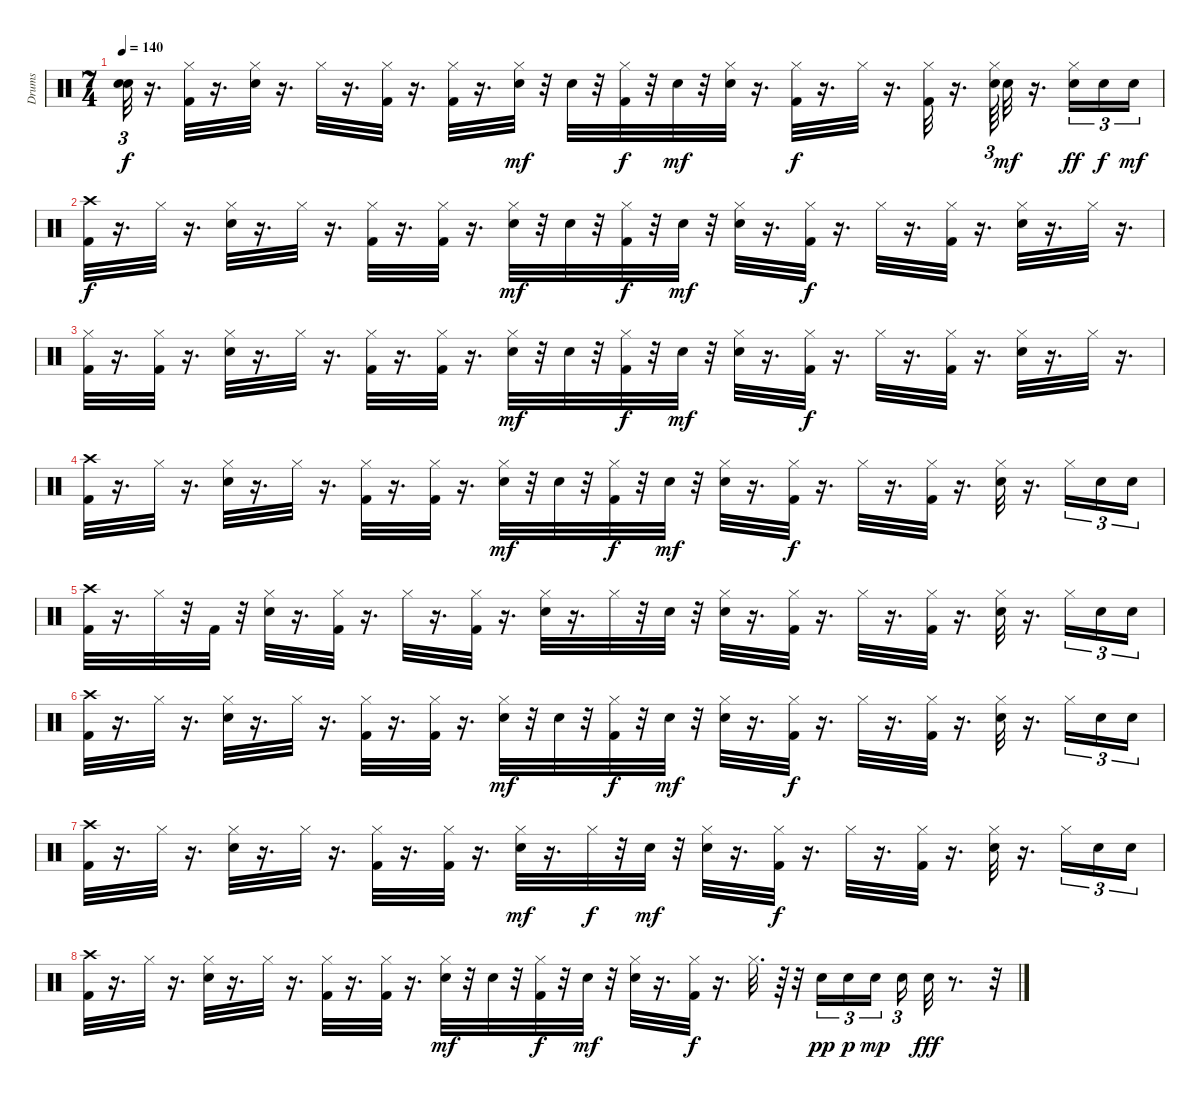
\track ("Drums" "Drums") {instrument percussion}
\staff {score}
\articulation defaults
\ts (7 4)
\tempo 140
\clef neutral
\ks c
("Snare (hit)"{t} "Snare (hit)"{t}).32{tu (3 2) dy f} r.16{d} ("Kick (hit) 2" "Hi-Hat (closed)").32 r.16{d} ("Snare (hit) 2" "Hi-Hat (closed)").32 r.16{d} "Hi-Hat (closed)".32 r.16{d} ("Hi-Hat (closed)" "Kick (hit) 2").32 r.16{d} ("Hi-Hat (closed)" "Kick (hit) 2").32 r.16{d} ("Snare (hit) 2" "Hi-Hat (closed)").32{dy mf} r.32 "Snare (hit) 2".32 r.32 ("Kick (hit) 2" "Hi-Hat (closed)").32{dy f} r.32 "Snare (hit) 2".32{dy mf} r.32 ("Hi-Hat (closed)" "Snare (hit) 2").32 r.16{d} ("Kick (hit) 2" "Hi-Hat (closed)").32{dy f} r.16{d} "Hi-Hat (closed)".32 r.16{d} ("Kick (hit) 2" "Hi-Hat (closed)").32 r.16{d} ("Snare (hit) 2" "Hi-Hat (closed)").64{tu (3 2)} "Snare (hit) 2".32{dy mf} r.16{d} ("Snare (hit) 2" "Hi-Hat (closed)").16{tu (3 2) dy ff} "Snare (hit) 2".16{tu (3 2) dy f} "Snare (hit) 2".16{tu (3 2) dy mf} |
("Kick (hit) 2" "Crash high (hit)").32{dy f} r.16{d} "Hi-Hat (closed)".32 r.16{d} ("Hi-Hat (closed)" "Snare (hit) 2").32 r.16{d} "Hi-Hat (closed)".32 r.16{d} ("Kick (hit) 2" "Hi-Hat (closed)").32 r.16{d} ("Kick (hit) 2" "Hi-Hat (closed)").32 r.16{d} ("Snare (hit) 2" "Hi-Hat (closed)").32{dy mf} r.32 "Snare (hit) 2".32 r.32 ("Kick (hit) 2" "Hi-Hat (closed)").32{dy f} r.32 "Snare (hit) 2".32{dy mf} r.32 ("Snare (hit) 2" "Hi-Hat (closed)").32 r.16{d} ("Hi-Hat (closed)" "Kick (hit) 2").32{dy f} r.16{d} "Hi-Hat (closed)".32 r.16{d} ("Kick (hit) 2" "Hi-Hat (closed)").32 r.16{d} ("Snare (hit) 2" "Hi-Hat (closed)").32 r.16{d} "Hi-Hat (closed)".32 r.16{d} |
("Kick (hit) 2" "Hi-Hat (closed)").32 r.16{d} ("Kick (hit) 2" "Hi-Hat (closed)").32 r.16{d} ("Snare (hit) 2" "Hi-Hat (closed)").32 r.16{d} "Hi-Hat (closed)".32 r.16{d} ("Hi-Hat (closed)" "Kick (hit) 2").32 r.16{d} ("Hi-Hat (closed)" "Kick (hit) 2").32 r.16{d} ("Snare (hit) 2" "Hi-Hat (closed)").32{dy mf} r.32 "Snare (hit) 2".32 r.32 ("Kick (hit) 2" "Hi-Hat (closed)").32{dy f} r.32 "Snare (hit) 2".32{dy mf} r.32 ("Hi-Hat (closed)" "Snare (hit) 2").32 r.16{d} ("Kick (hit) 2" "Hi-Hat (closed)").32{dy f} r.16{d} "Hi-Hat (closed)".32 r.16{d} ("Kick (hit) 2" "Hi-Hat (closed)").32 r.16{d} ("Snare (hit) 2" "Hi-Hat (closed)").32 r.16{d} "Hi-Hat (closed)".32 r.16{d} |
("Kick (hit) 2" "Crash high (hit)").32 r.16{d} "Hi-Hat (closed)".32 r.16{d} ("Hi-Hat (closed)" "Snare (hit) 2").32 r.16{d} "Hi-Hat (closed)".32 r.16{d} ("Kick (hit) 2" "Hi-Hat (closed)").32 r.16{d} ("Kick (hit) 2" "Hi-Hat (closed)").32 r.16{d} ("Snare (hit) 2" "Hi-Hat (closed)").32{dy mf} r.32 "Snare (hit) 2".32 r.32 ("Kick (hit) 2" "Hi-Hat (closed)").32{dy f} r.32 "Snare (hit) 2".32{dy mf} r.32 ("Snare (hit) 2" "Hi-Hat (closed)").32 r.16{d} ("Hi-Hat (closed)" "Kick (hit) 2").32{dy f} r.16{d} "Hi-Hat (closed)".32 r.16{d} ("Kick (hit) 2" "Hi-Hat (closed)").32 r.16{d} ("Snare (hit) 2" "Hi-Hat (closed)").32 r.16{d} "Hi-Hat (closed)".16{tu (3 2)} "Snare (hit) 2".16{tu (3 2)} "Snare (hit) 2".16{tu (3 2)} |
("Kick (hit) 2" "Crash high (hit)").32 r.16{d} "Hi-Hat (closed)".32 r.32 "Kick (hit) 2".32 r.32 ("Snare (hit) 2" "Hi-Hat (closed)").32 r.16{d} ("Hi-Hat (closed)" "Kick (hit) 2").32 r.16{d} "Hi-Hat (closed)".32 r.16{d} ("Hi-Hat (closed)" "Kick (hit) 2").32 r.16{d} ("Snare (hit) 2" "Hi-Hat (closed)").32 r.16{d} "Hi-Hat (closed)".32 r.32 "Snare (hit) 2".32 r.32 ("Snare (hit) 2" "Hi-Hat (closed)").32 r.16{d} ("Kick (hit) 2" "Hi-Hat (closed)").32 r.16{d} "Hi-Hat (closed)".32 r.16{d} ("Kick (hit) 2" "Hi-Hat (closed)").32 r.16{d} ("Snare (hit) 2" "Hi-Hat (closed)").32 r.16{d} "Hi-Hat (closed)".16{tu (3 2)} "Snare (hit) 2".16{tu (3 2)} "Snare (hit) 2".16{tu (3 2)} |
("Kick (hit) 2" "Crash high (hit)").32 r.16{d} "Hi-Hat (closed)".32 r.16{d} ("Hi-Hat (closed)" "Snare (hit) 2").32 r.16{d} "Hi-Hat (closed)".32 r.16{d} ("Kick (hit) 2" "Hi-Hat (closed)").32 r.16{d} ("Kick (hit) 2" "Hi-Hat (closed)").32 r.16{d} ("Snare (hit) 2" "Hi-Hat (closed)").32{dy mf} r.32 "Snare (hit) 2".32 r.32 ("Kick (hit) 2" "Hi-Hat (closed)").32{dy f} r.32 "Snare (hit) 2".32{dy mf} r.32 ("Snare (hit) 2" "Hi-Hat (closed)").32 r.16{d} ("Hi-Hat (closed)" "Kick (hit) 2").32{dy f} r.16{d} "Hi-Hat (closed)".32 r.16{d} ("Kick (hit) 2" "Hi-Hat (closed)").32 r.16{d} ("Snare (hit) 2" "Hi-Hat (closed)").32 r.16{d} "Hi-Hat (closed)".16{tu (3 2)} "Snare (hit) 2".16{tu (3 2)} "Snare (hit) 2".16{tu (3 2)} |
("Kick (hit) 2" "Crash high (hit)").32 r.16{d} "Hi-Hat (closed)".32 r.16{d} ("Hi-Hat (closed)" "Snare (hit) 2").32 r.16{d} "Hi-Hat (closed)".32 r.16{d} ("Kick (hit) 2" "Hi-Hat (closed)").32 r.16{d} ("Kick (hit) 2" "Hi-Hat (closed)").32 r.16{d} ("Snare (hit) 2" "Hi-Hat (closed)").32{dy mf} r.16{d} "Hi-Hat (closed)".32{dy f} r.32 "Snare (hit) 2".32{dy mf} r.32 ("Snare (hit) 2" "Hi-Hat (closed)").32 r.16{d} ("Hi-Hat (closed)" "Kick (hit) 2").32{dy f} r.16{d} "Hi-Hat (closed)".32 r.16{d} ("Kick (hit) 2" "Hi-Hat (closed)").32 r.16{d} ("Snare (hit) 2" "Hi-Hat (closed)").32 r.16{d} "Hi-Hat (closed)".16{tu (3 2)} "Snare (hit) 2".16{tu (3 2)} "Snare (hit) 2".16{tu (3 2)} |
("Kick (hit) 2" "Crash high (hit)").32 r.16{d} "Hi-Hat (closed)".32 r.16{d} ("Hi-Hat (closed)" "Snare (hit) 2").32 r.16{d} "Hi-Hat (closed)".32 r.16{d} ("Kick (hit) 2" "Hi-Hat (closed)").32 r.16{d} ("Kick (hit) 2" "Hi-Hat (closed)").32 r.16{d} ("Snare (hit) 2" "Hi-Hat (closed)").32{dy mf} r.32 "Snare (hit) 2".32 r.32 ("Kick (hit) 2" "Hi-Hat (closed)").32{dy f} r.32 "Snare (hit) 2".32{dy mf} r.32 ("Snare (hit) 2" "Hi-Hat (closed)").32 r.16{d} ("Hi-Hat (closed)" "Kick (hit) 2").32{dy f} r.16{d} "Hi-Hat (closed)".32{d} r.64 r.32 "Snare (hit) 2".16{tu (3 2) dy pp} "Snare (hit) 2".16{tu (3 2) dy p} "Snare (hit) 2".16{tu (3 2) dy mp beam splitsecondary} "Snare (hit) 2".16{tu (3 2)} "Snare (hit) 2".32{dy fff} r.8{d} r.32
